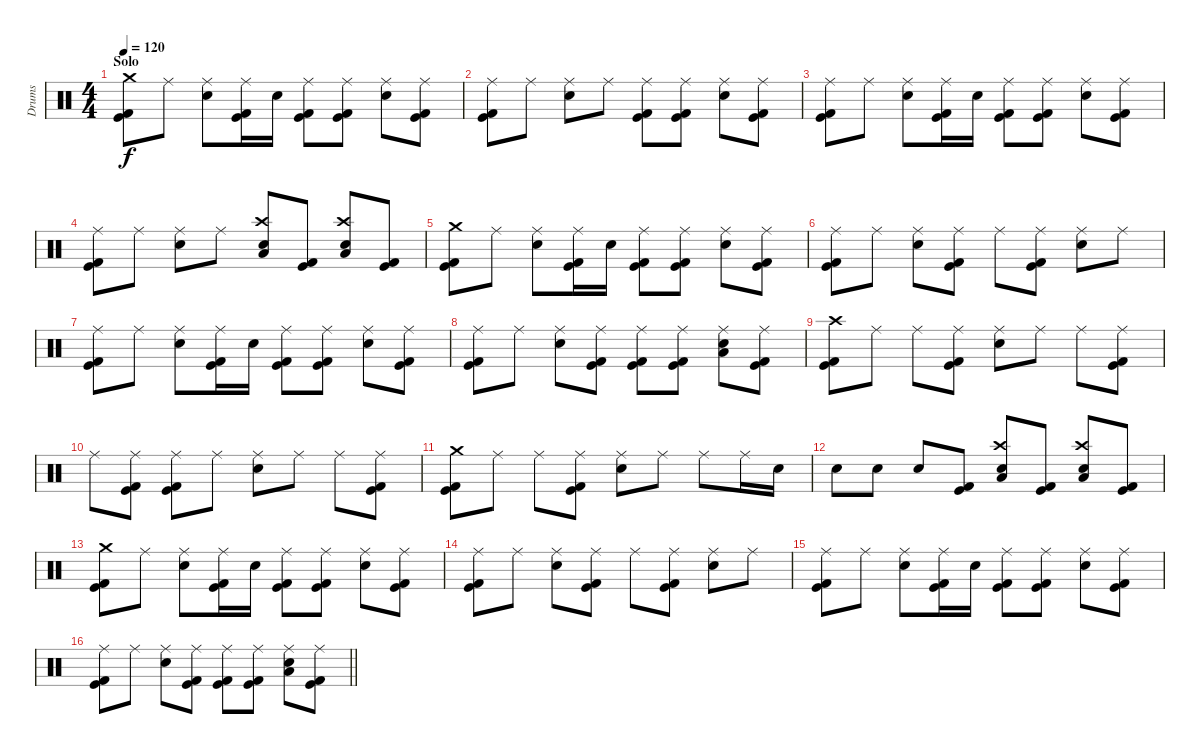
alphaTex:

\track ("Drums" "Drums") {instrument percussion}
\staff {score}
\articulation defaults
\ts (4 4)
\section ("" "Solo")
\tempo 120
\clef neutral
\ks c
("Crash medium (hit)" "Kick (hit)" "Kick (hit) 2").8{dy f} "Ride (middle)".8 ("Ride (middle)" "Electric Snare (hit)").8 ("Ride (middle)" "Kick (hit)" "Kick (hit) 2").16 "Electric Snare (hit)".16 ("Ride (middle)" "Kick (hit)" "Kick (hit) 2").8 ("Ride (middle)" "Kick (hit)" "Kick (hit) 2").8 ("Ride (middle)" "Electric Snare (hit)").8 ("Ride (middle)" "Kick (hit)" "Kick (hit) 2").8 |
("Ride (middle)" "Kick (hit)" "Kick (hit) 2").8 "Ride (middle)".8 ("Ride (middle)" "Electric Snare (hit)").8 "Ride (middle)".8 ("Ride (middle)" "Kick (hit)" "Kick (hit) 2").8 ("Ride (middle)" "Kick (hit)" "Kick (hit) 2").8 ("Ride (middle)" "Electric Snare (hit)").8 ("Ride (middle)" "Kick (hit)" "Kick (hit) 2").8 |
("Ride (middle)" "Kick (hit)" "Kick (hit) 2").8 "Ride (middle)".8 ("Ride (middle)" "Electric Snare (hit)").8 ("Ride (middle)" "Kick (hit)" "Kick (hit) 2").16 "Electric Snare (hit)".16 ("Ride (middle)" "Kick (hit)" "Kick (hit) 2").8 ("Ride (middle)" "Kick (hit)" "Kick (hit) 2").8 ("Ride (middle)" "Electric Snare (hit)").8 ("Ride (middle)" "Kick (hit)" "Kick (hit) 2").8 |
("Ride (middle)" "Kick (hit)" "Kick (hit) 2").8 "Ride (middle)".8 ("Ride (middle)" "Electric Snare (hit)").8 "Ride (middle)".8 ("Crash high (hit)" "Electric Snare (hit)" "Low Tom (hit)").8 ("Kick (hit)" "Kick (hit) 2").8 ("Crash high (hit)" "Electric Snare (hit)" "Low Tom (hit)").8 ("Kick (hit)" "Kick (hit) 2").8 |
("Crash medium (hit)" "Kick (hit)" "Kick (hit) 2").8 "Ride (middle)".8 ("Ride (middle)" "Electric Snare (hit)").8 ("Ride (middle)" "Kick (hit)" "Kick (hit) 2").16 "Electric Snare (hit)".16 ("Ride (middle)" "Kick (hit)" "Kick (hit) 2").8 ("Ride (middle)" "Kick (hit)" "Kick (hit) 2").8 ("Ride (middle)" "Electric Snare (hit)").8 ("Ride (middle)" "Kick (hit)" "Kick (hit) 2").8 |
("Ride (middle)" "Kick (hit)" "Kick (hit) 2").8 "Ride (middle)".8 ("Ride (middle)" "Electric Snare (hit)").8 ("Ride (middle)" "Kick (hit)" "Kick (hit) 2").8 "Ride (middle)".8 ("Ride (middle)" "Kick (hit)" "Kick (hit) 2").8 ("Ride (middle)" "Electric Snare (hit)").8 "Ride (middle)".8 |
("Ride (middle)" "Kick (hit)" "Kick (hit) 2").8 "Ride (middle)".8 ("Ride (middle)" "Electric Snare (hit)").8 ("Ride (middle)" "Kick (hit)" "Kick (hit) 2").16 "Electric Snare (hit)".16 ("Ride (middle)" "Kick (hit)" "Kick (hit) 2").8 ("Ride (middle)" "Kick (hit)" "Kick (hit) 2").8 ("Ride (middle)" "Electric Snare (hit)").8 ("Ride (middle)" "Kick (hit)" "Kick (hit) 2").8 |
("Ride (middle)" "Kick (hit)" "Kick (hit) 2").8 "Ride (middle)".8 ("Ride (middle)" "Electric Snare (hit)").8 ("Ride (middle)" "Kick (hit)" "Kick (hit) 2").8 ("Ride (middle)" "Kick (hit)" "Kick (hit) 2").8 ("Ride (middle)" "Kick (hit)" "Kick (hit) 2").8 ("Ride (middle)" "Electric Snare (hit)" "Low Tom (hit)").8 ("Ride (middle)" "Kick (hit)" "Kick (hit) 2").8 |
("Crash high (hit)" "Kick (hit)" "Kick (hit) 2").8 "Ride (middle)".8 "Ride (middle)".8 ("Ride (middle)" "Kick (hit)" "Kick (hit) 2").8 ("Ride (middle)" "Electric Snare (hit)").8 "Ride (middle)".8 "Ride (middle)".8 ("Ride (middle)" "Kick (hit)" "Kick (hit) 2").8 |
"Ride (middle)".8 ("Ride (middle)" "Kick (hit)" "Kick (hit) 2").8 ("Ride (middle)" "Kick (hit) 2" "Kick (hit)").8 "Ride (middle)".8 ("Ride (middle)" "Electric Snare (hit)").8 "Ride (middle)".8 "Ride (middle)".8 ("Ride (middle)" "Kick (hit)" "Kick (hit) 2").8 |
("Crash medium (hit)" "Kick (hit)" "Kick (hit) 2").8 "Ride (middle)".8 "Ride (middle)".8 ("Ride (middle)" "Kick (hit)" "Kick (hit) 2").8 ("Ride (middle)" "Electric Snare (hit)").8 "Ride (middle)".8 "Ride (middle)".8 "Ride (middle)".16 "Electric Snare (hit)".16 |
"Electric Snare (hit)".8 "Electric Snare (hit)".8 "Electric Snare (hit)".8 ("Kick (hit)" "Kick (hit) 2").8 ("Crash high (hit)" "Electric Snare (hit)" "Low Tom (hit)").8 ("Kick (hit)" "Kick (hit) 2").8 ("Crash high (hit)" "Electric Snare (hit)" "Low Tom (hit)").8 ("Kick (hit)" "Kick (hit) 2").8 |
("Crash medium (hit)" "Kick (hit)" "Kick (hit) 2").8 "Ride (middle)".8 ("Ride (middle)" "Electric Snare (hit)").8 ("Ride (middle)" "Kick (hit)" "Kick (hit) 2").16 "Electric Snare (hit)".16 ("Ride (middle)" "Kick (hit)" "Kick (hit) 2").8 ("Ride (middle)" "Kick (hit)" "Kick (hit) 2").8 ("Ride (middle)" "Electric Snare (hit)").8 ("Ride (middle)" "Kick (hit)" "Kick (hit) 2").8 |
("Ride (middle)" "Kick (hit)" "Kick (hit) 2").8 "Ride (middle)".8 ("Ride (middle)" "Electric Snare (hit)").8 ("Ride (middle)" "Kick (hit)" "Kick (hit) 2").8 "Ride (middle)".8 ("Ride (middle)" "Kick (hit)" "Kick (hit) 2").8 ("Ride (middle)" "Electric Snare (hit)").8 "Ride (middle)".8 |
("Ride (middle)" "Kick (hit)" "Kick (hit) 2").8 "Ride (middle)".8 ("Ride (middle)" "Electric Snare (hit)").8 ("Ride (middle)" "Kick (hit)" "Kick (hit) 2").16 "Electric Snare (hit)".16 ("Ride (middle)" "Kick (hit)" "Kick (hit) 2").8 ("Ride (middle)" "Kick (hit)" "Kick (hit) 2").8 ("Ride (middle)" "Electric Snare (hit)").8 ("Ride (middle)" "Kick (hit)" "Kick (hit) 2").8 |
\barLineRight lightlight
("Ride (middle)" "Kick (hit)" "Kick (hit) 2").8 "Ride (middle)".8 ("Ride (middle)" "Electric Snare (hit)").8 ("Ride (middle)" "Kick (hit)" "Kick (hit) 2").8 ("Ride (middle)" "Kick (hit)" "Kick (hit) 2").8 ("Ride (middle)" "Kick (hit)" "Kick (hit) 2").8 ("Ride (middle)" "Electric Snare (hit)" "Low Tom (hit)").8 ("Ride (middle)" "Kick (hit)" "Kick (hit) 2").8
